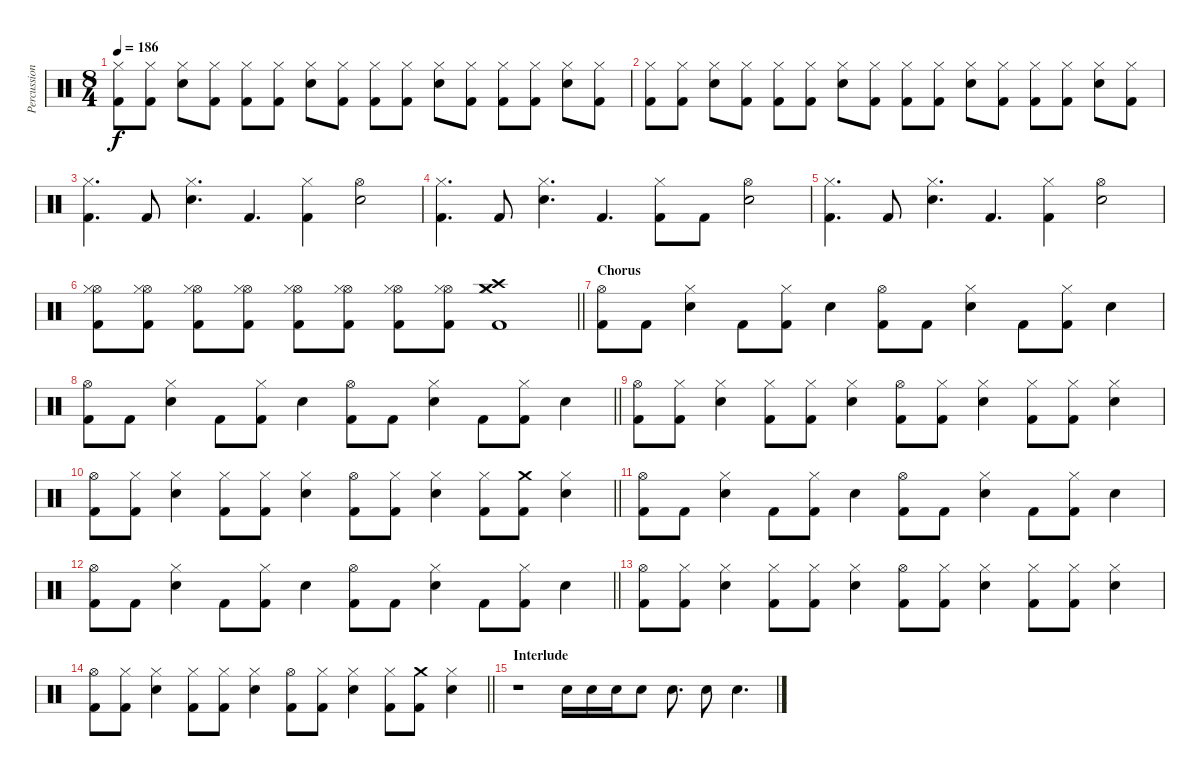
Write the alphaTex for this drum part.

\track ("Percussion" "Percussion") {instrument percussion}
\staff {score}
\articulation defaults
\ts (8 4)
\tempo 186
\clef neutral
\ks c
("Hi-Hat (closed)" "Kick (hit) 2").8{dy f} ("Hi-Hat (closed)" "Kick (hit) 2").8 ("Hi-Hat (closed)" "Electric Snare (hit)").8 ("Hi-Hat (closed)" "Kick (hit) 2").8 ("Hi-Hat (closed)" "Kick (hit) 2").8 ("Hi-Hat (closed)" "Kick (hit) 2").8 ("Hi-Hat (closed)" "Electric Snare (hit)").8 ("Hi-Hat (closed)" "Kick (hit) 2").8 ("Hi-Hat (closed)" "Kick (hit) 2").8 ("Hi-Hat (closed)" "Kick (hit) 2").8 ("Hi-Hat (closed)" "Electric Snare (hit)").8 ("Hi-Hat (closed)" "Kick (hit) 2").8 ("Hi-Hat (closed)" "Kick (hit) 2").8 ("Hi-Hat (closed)" "Kick (hit) 2").8 ("Hi-Hat (closed)" "Electric Snare (hit)").8 ("Hi-Hat (closed)" "Kick (hit) 2").8 |
("Hi-Hat (closed)" "Kick (hit) 2").8 ("Hi-Hat (closed)" "Kick (hit) 2").8 ("Hi-Hat (closed)" "Electric Snare (hit)").8 ("Hi-Hat (closed)" "Kick (hit) 2").8 ("Hi-Hat (closed)" "Kick (hit) 2").8 ("Hi-Hat (closed)" "Kick (hit) 2").8 ("Hi-Hat (closed)" "Electric Snare (hit)").8 ("Hi-Hat (closed)" "Kick (hit) 2").8 ("Hi-Hat (closed)" "Kick (hit) 2").8 ("Hi-Hat (closed)" "Kick (hit) 2").8 ("Hi-Hat (closed)" "Electric Snare (hit)").8 ("Hi-Hat (closed)" "Kick (hit) 2").8 ("Hi-Hat (closed)" "Kick (hit) 2").8 ("Hi-Hat (closed)" "Kick (hit) 2").8 ("Hi-Hat (closed)" "Electric Snare (hit)").8 ("Hi-Hat (closed)" "Kick (hit) 2").8 |
("Hi-Hat (closed)" "Kick (hit) 2").4{d} "Kick (hit) 2".8 ("Hi-Hat (closed)" "Electric Snare (hit)").4{d} "Kick (hit) 2".4{d} ("Hi-Hat (closed)" "Kick (hit) 2").4 ("Hi-Hat (open)" "Electric Snare (hit)").2 |
("Hi-Hat (closed)" "Kick (hit) 2").4{d} "Kick (hit) 2".8 ("Hi-Hat (closed)" "Electric Snare (hit)").4{d} "Kick (hit) 2".4{d} ("Hi-Hat (closed)" "Kick (hit) 2").8 "Kick (hit) 2".8 ("Hi-Hat (open)" "Electric Snare (hit)").2 |
("Hi-Hat (closed)" "Kick (hit) 2").4{d} "Kick (hit) 2".8 ("Hi-Hat (closed)" "Electric Snare (hit)").4{d} "Kick (hit) 2".4{d} ("Hi-Hat (closed)" "Kick (hit) 2").4 ("Hi-Hat (open)" "Electric Snare (hit)").2 |
\barLineRight lightlight
("Hi-Hat (open)" "Hi-Hat (closed)" "Kick (hit) 2").8 ("Hi-Hat (open)" "Hi-Hat (closed)" "Kick (hit) 2").8 ("Hi-Hat (open)" "Hi-Hat (closed)" "Kick (hit) 2").8 ("Hi-Hat (open)" "Hi-Hat (closed)" "Kick (hit) 2").8 ("Hi-Hat (open)" "Hi-Hat (closed)" "Kick (hit) 2").8 ("Hi-Hat (open)" "Hi-Hat (closed)" "Kick (hit) 2").8 ("Hi-Hat (open)" "Hi-Hat (closed)" "Kick (hit) 2").8 ("Hi-Hat (open)" "Hi-Hat (closed)" "Kick (hit) 2").8 ("Crash high (hit)" "Hi-Hat (closed)" "Crash medium (hit)" "Kick (hit) 2").1 |
\section ("" "Chorus")
("Hi-Hat (open)" "Kick (hit) 2").8 "Kick (hit) 2".8 ("Hi-Hat (closed)" "Electric Snare (hit)").4 "Kick (hit) 2".8 ("Hi-Hat (closed)" "Kick (hit) 2").8 "Electric Snare (hit)".4 ("Hi-Hat (open)" "Kick (hit) 2").8 "Kick (hit) 2".8 ("Hi-Hat (closed)" "Electric Snare (hit)").4 "Kick (hit) 2".8 ("Hi-Hat (closed)" "Kick (hit) 2").8 "Electric Snare (hit)".4 |
\barLineRight lightlight
("Hi-Hat (open)" "Kick (hit) 2").8 "Kick (hit) 2".8 ("Hi-Hat (closed)" "Electric Snare (hit)").4 "Kick (hit) 2".8 ("Hi-Hat (closed)" "Kick (hit) 2").8 "Electric Snare (hit)".4 ("Hi-Hat (open)" "Kick (hit) 2").8 "Kick (hit) 2".8 ("Hi-Hat (closed)" "Electric Snare (hit)").4 "Kick (hit) 2".8 ("Hi-Hat (closed)" "Kick (hit) 2").8 "Electric Snare (hit)".4 |
("Hi-Hat (open)" "Kick (hit) 2").8 ("Hi-Hat (closed)" "Kick (hit) 2").8 ("Hi-Hat (closed)" "Electric Snare (hit)").4 ("Hi-Hat (closed)" "Kick (hit) 2").8 ("Hi-Hat (closed)" "Kick (hit) 2").8 ("Hi-Hat (closed)" "Electric Snare (hit)").4 ("Hi-Hat (open)" "Kick (hit) 2").8 ("Hi-Hat (closed)" "Kick (hit) 2").8 ("Hi-Hat (closed)" "Electric Snare (hit)").4 ("Hi-Hat (closed)" "Kick (hit) 2").8 ("Hi-Hat (closed)" "Kick (hit) 2").8 ("Hi-Hat (closed)" "Electric Snare (hit)").4 |
\barLineRight lightlight
("Hi-Hat (open)" "Kick (hit) 2").8 ("Hi-Hat (closed)" "Kick (hit) 2").8 ("Hi-Hat (closed)" "Electric Snare (hit)").4 ("Hi-Hat (closed)" "Kick (hit) 2").8 ("Hi-Hat (closed)" "Kick (hit) 2").8 ("Hi-Hat (closed)" "Electric Snare (hit)").4 ("Hi-Hat (open)" "Kick (hit) 2").8 ("Hi-Hat (closed)" "Kick (hit) 2").8 ("Hi-Hat (closed)" "Electric Snare (hit)").4 ("Hi-Hat (closed)" "Kick (hit) 2").8 ("Crash medium (hit)" "Kick (hit) 2").8 ("Hi-Hat (closed)" "Electric Snare (hit)").4 |
("Hi-Hat (open)" "Kick (hit) 2").8 "Kick (hit) 2".8 ("Hi-Hat (closed)" "Electric Snare (hit)").4 "Kick (hit) 2".8 ("Hi-Hat (closed)" "Kick (hit) 2").8 "Electric Snare (hit)".4 ("Hi-Hat (open)" "Kick (hit) 2").8 "Kick (hit) 2".8 ("Hi-Hat (closed)" "Electric Snare (hit)").4 "Kick (hit) 2".8 ("Hi-Hat (closed)" "Kick (hit) 2").8 "Electric Snare (hit)".4 |
\barLineRight lightlight
("Hi-Hat (open)" "Kick (hit) 2").8 "Kick (hit) 2".8 ("Hi-Hat (closed)" "Electric Snare (hit)").4 "Kick (hit) 2".8 ("Hi-Hat (closed)" "Kick (hit) 2").8 "Electric Snare (hit)".4 ("Hi-Hat (open)" "Kick (hit) 2").8 "Kick (hit) 2".8 ("Hi-Hat (closed)" "Electric Snare (hit)").4 "Kick (hit) 2".8 ("Hi-Hat (closed)" "Kick (hit) 2").8 "Electric Snare (hit)".4 |
("Hi-Hat (open)" "Kick (hit) 2").8 ("Hi-Hat (closed)" "Kick (hit) 2").8 ("Hi-Hat (closed)" "Electric Snare (hit)").4 ("Hi-Hat (closed)" "Kick (hit) 2").8 ("Hi-Hat (closed)" "Kick (hit) 2").8 ("Hi-Hat (closed)" "Electric Snare (hit)").4 ("Hi-Hat (open)" "Kick (hit) 2").8 ("Hi-Hat (closed)" "Kick (hit) 2").8 ("Hi-Hat (closed)" "Electric Snare (hit)").4 ("Hi-Hat (closed)" "Kick (hit) 2").8 ("Hi-Hat (closed)" "Kick (hit) 2").8 ("Hi-Hat (closed)" "Electric Snare (hit)").4 |
\barLineRight lightlight
("Hi-Hat (open)" "Kick (hit) 2").8 ("Hi-Hat (closed)" "Kick (hit) 2").8 ("Hi-Hat (closed)" "Electric Snare (hit)").4 ("Hi-Hat (closed)" "Kick (hit) 2").8 ("Hi-Hat (closed)" "Kick (hit) 2").8 ("Hi-Hat (closed)" "Electric Snare (hit)").4 ("Hi-Hat (open)" "Kick (hit) 2").8 ("Hi-Hat (closed)" "Kick (hit) 2").8 ("Hi-Hat (closed)" "Electric Snare (hit)").4 ("Hi-Hat (closed)" "Kick (hit) 2").8 ("Crash medium (hit)" "Kick (hit) 2").8 ("Hi-Hat (closed)" "Electric Snare (hit)").4 |
\section ("" "Interlude")
r.1 "Electric Snare (hit)".16 "Electric Snare (hit)".16 "Electric Snare (hit)".16 "Electric Snare (hit)".8 "Electric Snare (hit)".8{d} "Electric Snare (hit)".8 "Electric Snare (hit)".4{d}
